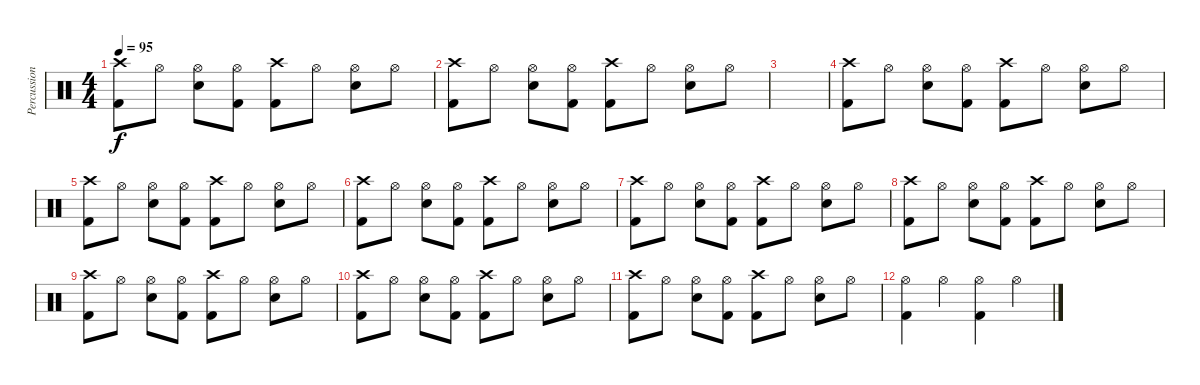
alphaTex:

\track ("Percussion" "Percussion") {instrument percussion}
\staff {score}
\articulation defaults
\ts (4 4)
\tempo 95
\clef neutral
\ks c
("Crash high (hit)" "Kick (hit) 2").8{dy f} "Hi-Hat (open)".8 ("Hi-Hat (open)" "Snare (hit) 2").8 ("Hi-Hat (open)" "Kick (hit) 2").8 ("Crash high (hit)" "Kick (hit) 2").8 "Hi-Hat (open)".8 ("Hi-Hat (open)" "Snare (hit) 2").8 "Hi-Hat (open)".8 |
("Crash high (hit)" "Kick (hit) 2").8 "Hi-Hat (open)".8 ("Hi-Hat (open)" "Snare (hit) 2").8 ("Hi-Hat (open)" "Kick (hit) 2").8 ("Crash high (hit)" "Kick (hit) 2").8 "Hi-Hat (open)".8 ("Hi-Hat (open)" "Snare (hit) 2").8 "Hi-Hat (open)".8 |
|
("Crash high (hit)" "Kick (hit) 2").8 "Hi-Hat (open)".8 ("Hi-Hat (open)" "Snare (hit) 2").8 ("Hi-Hat (open)" "Kick (hit) 2").8 ("Crash high (hit)" "Kick (hit) 2").8 "Hi-Hat (open)".8 ("Hi-Hat (open)" "Snare (hit) 2").8 "Hi-Hat (open)".8 |
("Crash high (hit)" "Kick (hit) 2").8 "Hi-Hat (open)".8 ("Hi-Hat (open)" "Snare (hit) 2").8 ("Hi-Hat (open)" "Kick (hit) 2").8 ("Crash high (hit)" "Kick (hit) 2").8 "Hi-Hat (open)".8 ("Hi-Hat (open)" "Snare (hit) 2").8 "Hi-Hat (open)".8 |
("Crash high (hit)" "Kick (hit) 2").8 "Hi-Hat (open)".8 ("Hi-Hat (open)" "Snare (hit) 2").8 ("Hi-Hat (open)" "Kick (hit) 2").8 ("Crash high (hit)" "Kick (hit) 2").8 "Hi-Hat (open)".8 ("Hi-Hat (open)" "Snare (hit) 2").8 "Hi-Hat (open)".8 |
("Crash high (hit)" "Kick (hit) 2").8 "Hi-Hat (open)".8 ("Hi-Hat (open)" "Snare (hit) 2").8 ("Hi-Hat (open)" "Kick (hit) 2").8 ("Crash high (hit)" "Kick (hit) 2").8 "Hi-Hat (open)".8 ("Hi-Hat (open)" "Snare (hit) 2").8 "Hi-Hat (open)".8 |
("Crash high (hit)" "Kick (hit) 2").8 "Hi-Hat (open)".8 ("Hi-Hat (open)" "Snare (hit) 2").8 ("Hi-Hat (open)" "Kick (hit) 2").8 ("Crash high (hit)" "Kick (hit) 2").8 "Hi-Hat (open)".8 ("Hi-Hat (open)" "Snare (hit) 2").8 "Hi-Hat (open)".8 |
("Crash high (hit)" "Kick (hit) 2").8 "Hi-Hat (open)".8 ("Hi-Hat (open)" "Snare (hit) 2").8 ("Hi-Hat (open)" "Kick (hit) 2").8 ("Crash high (hit)" "Kick (hit) 2").8 "Hi-Hat (open)".8 ("Hi-Hat (open)" "Snare (hit) 2").8 "Hi-Hat (open)".8 |
("Crash high (hit)" "Kick (hit) 2").8 "Hi-Hat (open)".8 ("Hi-Hat (open)" "Snare (hit) 2").8 ("Hi-Hat (open)" "Kick (hit) 2").8 ("Crash high (hit)" "Kick (hit) 2").8 "Hi-Hat (open)".8 ("Hi-Hat (open)" "Snare (hit) 2").8 "Hi-Hat (open)".8 |
("Crash high (hit)" "Kick (hit) 2").8 "Hi-Hat (open)".8 ("Hi-Hat (open)" "Snare (hit) 2").8 ("Hi-Hat (open)" "Kick (hit) 2").8 ("Crash high (hit)" "Kick (hit) 2").8 "Hi-Hat (open)".8 ("Hi-Hat (open)" "Snare (hit) 2").8 "Hi-Hat (open)".8 |
("Hi-Hat (open)" "Kick (hit) 2").4 "Hi-Hat (open)".4 ("Hi-Hat (open)" "Kick (hit) 2").4 "Hi-Hat (open)".4
